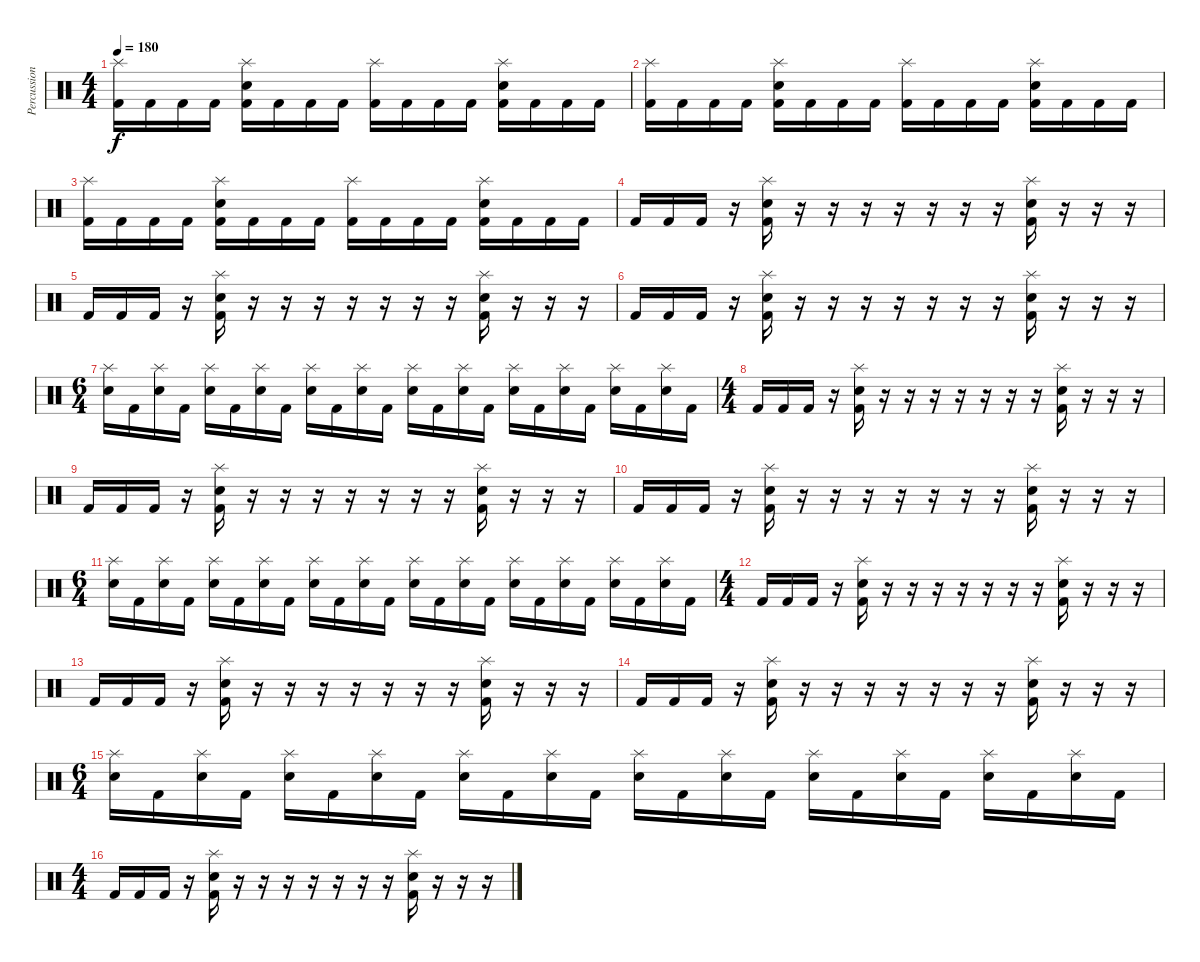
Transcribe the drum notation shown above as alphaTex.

\track ("Percussion" "Percussion") {instrument percussion}
\staff {score}
\articulation defaults
\ts (4 4)
\tempo 180
\clef neutral
\ks c
("Splash (hit)" "Kick (hit) 2").16{dy f} "Kick (hit) 2".16 "Kick (hit) 2".16 "Kick (hit) 2".16 ("Splash (hit)" "Snare (hit) 2" "Kick (hit) 2").16 "Kick (hit) 2".16 "Kick (hit) 2".16 "Kick (hit) 2".16 ("Splash (hit)" "Kick (hit) 2").16 "Kick (hit) 2".16 "Kick (hit) 2".16 "Kick (hit) 2".16 ("Splash (hit)" "Snare (hit) 2" "Kick (hit) 2").16 "Kick (hit) 2".16 "Kick (hit) 2".16 "Kick (hit) 2".16 |
("Splash (hit)" "Kick (hit) 2").16 "Kick (hit) 2".16 "Kick (hit) 2".16 "Kick (hit) 2".16 ("Splash (hit)" "Snare (hit) 2" "Kick (hit) 2").16 "Kick (hit) 2".16 "Kick (hit) 2".16 "Kick (hit) 2".16 ("Splash (hit)" "Kick (hit) 2").16 "Kick (hit) 2".16 "Kick (hit) 2".16 "Kick (hit) 2".16 ("Splash (hit)" "Snare (hit) 2" "Kick (hit) 2").16 "Kick (hit) 2".16 "Kick (hit) 2".16 "Kick (hit) 2".16 |
("Splash (hit)" "Kick (hit) 2").16 "Kick (hit) 2".16 "Kick (hit) 2".16 "Kick (hit) 2".16 ("Splash (hit)" "Snare (hit) 2" "Kick (hit) 2").16 "Kick (hit) 2".16 "Kick (hit) 2".16 "Kick (hit) 2".16 ("Splash (hit)" "Kick (hit) 2").16 "Kick (hit) 2".16 "Kick (hit) 2".16 "Kick (hit) 2".16 ("Splash (hit)" "Snare (hit) 2" "Kick (hit) 2").16 "Kick (hit) 2".16 "Kick (hit) 2".16 "Kick (hit) 2".16 |
"Kick (hit) 2".16 "Kick (hit) 2".16 "Kick (hit) 2".16 r.16 ("Splash (hit)" "Snare (hit) 2" "Kick (hit) 2").16 r.16 r.16 r.16 r.16 r.16 r.16 r.16 ("Splash (hit)" "Snare (hit) 2" "Kick (hit) 2").16 r.16 r.16 r.16 |
"Kick (hit) 2".16 "Kick (hit) 2".16 "Kick (hit) 2".16 r.16 ("Splash (hit)" "Snare (hit) 2" "Kick (hit) 2").16 r.16 r.16 r.16 r.16 r.16 r.16 r.16 ("Splash (hit)" "Snare (hit) 2" "Kick (hit) 2").16 r.16 r.16 r.16 |
"Kick (hit) 2".16 "Kick (hit) 2".16 "Kick (hit) 2".16 r.16 ("Splash (hit)" "Snare (hit) 2" "Kick (hit) 2").16 r.16 r.16 r.16 r.16 r.16 r.16 r.16 ("Splash (hit)" "Snare (hit) 2" "Kick (hit) 2").16 r.16 r.16 r.16 |
\ts (6 4)
("Splash (hit)" "Snare (hit) 2").16 "Kick (hit) 2".16 ("Splash (hit)" "Snare (hit) 2").16 "Kick (hit) 2".16 ("Splash (hit)" "Snare (hit) 2").16 "Kick (hit) 2".16 ("Splash (hit)" "Snare (hit) 2").16 "Kick (hit) 2".16 ("Splash (hit)" "Snare (hit) 2").16 "Kick (hit) 2".16 ("Splash (hit)" "Snare (hit) 2").16 "Kick (hit) 2".16 ("Splash (hit)" "Snare (hit) 2").16 "Kick (hit) 2".16 ("Splash (hit)" "Snare (hit) 2").16 "Kick (hit) 2".16 ("Splash (hit)" "Snare (hit) 2").16 "Kick (hit) 2".16 ("Splash (hit)" "Snare (hit) 2").16 "Kick (hit) 2".16 ("Splash (hit)" "Snare (hit) 2").16 "Kick (hit) 2".16 ("Splash (hit)" "Snare (hit) 2").16 "Kick (hit) 2".16 |
\ts (4 4)
"Kick (hit) 2".16 "Kick (hit) 2".16 "Kick (hit) 2".16 r.16 ("Splash (hit)" "Snare (hit) 2" "Kick (hit) 2").16 r.16 r.16 r.16 r.16 r.16 r.16 r.16 ("Splash (hit)" "Snare (hit) 2" "Kick (hit) 2").16 r.16 r.16 r.16 |
"Kick (hit) 2".16 "Kick (hit) 2".16 "Kick (hit) 2".16 r.16 ("Splash (hit)" "Snare (hit) 2" "Kick (hit) 2").16 r.16 r.16 r.16 r.16 r.16 r.16 r.16 ("Splash (hit)" "Snare (hit) 2" "Kick (hit) 2").16 r.16 r.16 r.16 |
"Kick (hit) 2".16 "Kick (hit) 2".16 "Kick (hit) 2".16 r.16 ("Splash (hit)" "Snare (hit) 2" "Kick (hit) 2").16 r.16 r.16 r.16 r.16 r.16 r.16 r.16 ("Splash (hit)" "Snare (hit) 2" "Kick (hit) 2").16 r.16 r.16 r.16 |
\ts (6 4)
("Splash (hit)" "Snare (hit) 2").16 "Kick (hit) 2".16 ("Splash (hit)" "Snare (hit) 2").16 "Kick (hit) 2".16 ("Splash (hit)" "Snare (hit) 2").16 "Kick (hit) 2".16 ("Splash (hit)" "Snare (hit) 2").16 "Kick (hit) 2".16 ("Splash (hit)" "Snare (hit) 2").16 "Kick (hit) 2".16 ("Splash (hit)" "Snare (hit) 2").16 "Kick (hit) 2".16 ("Splash (hit)" "Snare (hit) 2").16 "Kick (hit) 2".16 ("Splash (hit)" "Snare (hit) 2").16 "Kick (hit) 2".16 ("Splash (hit)" "Snare (hit) 2").16 "Kick (hit) 2".16 ("Splash (hit)" "Snare (hit) 2").16 "Kick (hit) 2".16 ("Splash (hit)" "Snare (hit) 2").16 "Kick (hit) 2".16 ("Splash (hit)" "Snare (hit) 2").16 "Kick (hit) 2".16 |
\ts (4 4)
"Kick (hit) 2".16 "Kick (hit) 2".16 "Kick (hit) 2".16 r.16 ("Splash (hit)" "Snare (hit) 2" "Kick (hit) 2").16 r.16 r.16 r.16 r.16 r.16 r.16 r.16 ("Splash (hit)" "Snare (hit) 2" "Kick (hit) 2").16 r.16 r.16 r.16 |
"Kick (hit) 2".16 "Kick (hit) 2".16 "Kick (hit) 2".16 r.16 ("Splash (hit)" "Snare (hit) 2" "Kick (hit) 2").16 r.16 r.16 r.16 r.16 r.16 r.16 r.16 ("Splash (hit)" "Snare (hit) 2" "Kick (hit) 2").16 r.16 r.16 r.16 |
"Kick (hit) 2".16 "Kick (hit) 2".16 "Kick (hit) 2".16 r.16 ("Splash (hit)" "Snare (hit) 2" "Kick (hit) 2").16 r.16 r.16 r.16 r.16 r.16 r.16 r.16 ("Splash (hit)" "Snare (hit) 2" "Kick (hit) 2").16 r.16 r.16 r.16 |
\ts (6 4)
("Splash (hit)" "Snare (hit) 2").16 "Kick (hit) 2".16 ("Splash (hit)" "Snare (hit) 2").16 "Kick (hit) 2".16 ("Splash (hit)" "Snare (hit) 2").16 "Kick (hit) 2".16 ("Splash (hit)" "Snare (hit) 2").16 "Kick (hit) 2".16 ("Splash (hit)" "Snare (hit) 2").16 "Kick (hit) 2".16 ("Splash (hit)" "Snare (hit) 2").16 "Kick (hit) 2".16 ("Splash (hit)" "Snare (hit) 2").16 "Kick (hit) 2".16 ("Splash (hit)" "Snare (hit) 2").16 "Kick (hit) 2".16 ("Splash (hit)" "Snare (hit) 2").16 "Kick (hit) 2".16 ("Splash (hit)" "Snare (hit) 2").16 "Kick (hit) 2".16 ("Splash (hit)" "Snare (hit) 2").16 "Kick (hit) 2".16 ("Splash (hit)" "Snare (hit) 2").16 "Kick (hit) 2".16 |
\ts (4 4)
"Kick (hit) 2".16 "Kick (hit) 2".16 "Kick (hit) 2".16 r.16 ("Splash (hit)" "Snare (hit) 2" "Kick (hit) 2").16 r.16 r.16 r.16 r.16 r.16 r.16 r.16 ("Splash (hit)" "Snare (hit) 2" "Kick (hit) 2").16 r.16 r.16 r.16
